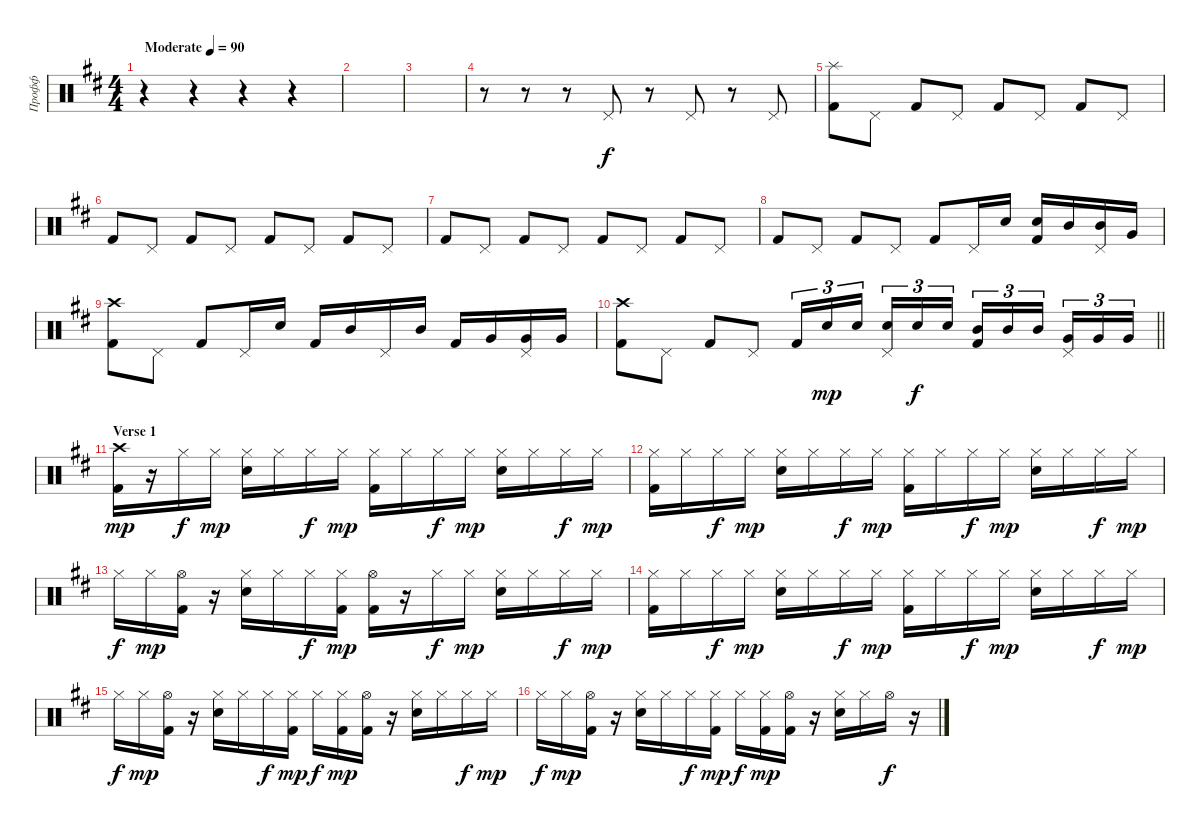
\track ("Профф" "Профф") {instrument percussion}
\staff {score}
\articulation defaults
\ts (4 4)
\tempo (90 "Moderate")
\clef neutral
\ks bminor
r.4{dy f} r.4 r.4 r.4 |
|
|
r.8 r.8 r.8 "Pedal Hi-Hat (hit)".8 r.8 "Pedal Hi-Hat (hit)".8 r.8 "Pedal Hi-Hat (hit)".8 |
("Splash (hit)" "Kick (hit) 2").8 "Pedal Hi-Hat (hit)".8 "Kick (hit) 2".8 "Pedal Hi-Hat (hit)".8 "Kick (hit) 2".8 "Pedal Hi-Hat (hit)".8 "Kick (hit) 2".8 "Pedal Hi-Hat (hit)".8 |
"Kick (hit) 2".8 "Pedal Hi-Hat (hit)".8 "Kick (hit) 2".8 "Pedal Hi-Hat (hit)".8 "Kick (hit) 2".8 "Pedal Hi-Hat (hit)".8 "Kick (hit) 2".8 "Pedal Hi-Hat (hit)".8 |
"Kick (hit) 2".8 "Pedal Hi-Hat (hit)".8 "Kick (hit) 2".8 "Pedal Hi-Hat (hit)".8 "Kick (hit) 2".8 "Pedal Hi-Hat (hit)".8 "Kick (hit) 2".8 "Pedal Hi-Hat (hit)".8 |
"Kick (hit) 2".8 "Pedal Hi-Hat (hit)".8 "Kick (hit) 2".8 "Pedal Hi-Hat (hit)".8 "Kick (hit) 2".8 "Pedal Hi-Hat (hit)".16 "Electric Snare (hit)".16 ("Electric Snare (hit)" "Kick (hit) 2").16 "Mid Tom (hit)".16 ("Pedal Hi-Hat (hit)" "Mid Tom (hit)").16 "Very Low Tom (hit)".16 |
("Crash high (hit)" "Kick (hit) 2").8 "Pedal Hi-Hat (hit)".8 "Kick (hit) 2".8 "Pedal Hi-Hat (hit)".16 "Electric Snare (hit)".16 "Kick (hit) 2".16 "Mid Tom (hit)".16 "Pedal Hi-Hat (hit)".16 "Mid Tom (hit)".16 "Kick (hit) 2".16 "Very Low Tom (hit)".16 ("Pedal Hi-Hat (hit)" "Very Low Tom (hit)").16 "Very Low Tom (hit)".16 |
\barLineRight lightlight
("Crash high (hit)" "Kick (hit) 2").8 "Pedal Hi-Hat (hit)".8 "Kick (hit) 2".8 "Pedal Hi-Hat (hit)".8 "Kick (hit) 2".16{tu (3 2)} "Electric Snare (hit)".16{tu (3 2) dy mp} "Electric Snare (hit)".16{tu (3 2) beam splitsecondary} ("Pedal Hi-Hat (hit)" "Electric Snare (hit)").16{tu (3 2)} "Electric Snare (hit)".16{tu (3 2) dy f} "Electric Snare (hit)".16{tu (3 2)} ("Mid Tom (hit)" "Kick (hit) 2").16{tu (3 2)} "Mid Tom (hit)".16{tu (3 2)} "Mid Tom (hit)".16{tu (3 2) beam splitsecondary} ("Pedal Hi-Hat (hit)" "Very Low Tom (hit)").16{tu (3 2)} "Very Low Tom (hit)".16{tu (3 2)} "Very Low Tom (hit)".16{tu (3 2)} |
\section ("" "Verse 1")
("Crash high (hit)" "Kick (hit) 2").16{dy mp} r.16 "Hi-Hat (closed)".16{dy f} "Hi-Hat (closed)".16{dy mp} ("Hi-Hat (closed)" "Electric Snare (hit)").16 "Hi-Hat (closed)".16 "Hi-Hat (closed)".16{dy f} "Hi-Hat (closed)".16{dy mp} ("Hi-Hat (closed)" "Kick (hit) 2").16 "Hi-Hat (closed)".16 "Hi-Hat (closed)".16{dy f} "Hi-Hat (closed)".16{dy mp} ("Hi-Hat (closed)" "Electric Snare (hit)").16 "Hi-Hat (closed)".16 "Hi-Hat (closed)".16{dy f} "Hi-Hat (closed)".16{dy mp} |
("Hi-Hat (closed)" "Kick (hit) 2").16 "Hi-Hat (closed)".16 "Hi-Hat (closed)".16{dy f} "Hi-Hat (closed)".16{dy mp} ("Hi-Hat (closed)" "Electric Snare (hit)").16 "Hi-Hat (closed)".16 "Hi-Hat (closed)".16{dy f} "Hi-Hat (closed)".16{dy mp} ("Hi-Hat (closed)" "Kick (hit) 2").16 "Hi-Hat (closed)".16 "Hi-Hat (closed)".16{dy f} "Hi-Hat (closed)".16{dy mp} ("Hi-Hat (closed)" "Electric Snare (hit)").16 "Hi-Hat (closed)".16 "Hi-Hat (closed)".16{dy f} "Hi-Hat (closed)".16{dy mp} |
"Hi-Hat (closed)".16{dy f} "Hi-Hat (closed)".16{dy mp} ("Hi-Hat (open)" "Kick (hit) 2").16 r.16 ("Hi-Hat (closed)" "Electric Snare (hit)").16 "Hi-Hat (closed)".16 "Hi-Hat (closed)".16{dy f} ("Hi-Hat (closed)" "Kick (hit) 2").16{dy mp} ("Hi-Hat (open)" "Kick (hit) 2").16 r.16 "Hi-Hat (closed)".16{dy f} "Hi-Hat (closed)".16{dy mp} ("Hi-Hat (closed)" "Electric Snare (hit)").16 "Hi-Hat (closed)".16 "Hi-Hat (closed)".16{dy f} "Hi-Hat (closed)".16{dy mp} |
("Hi-Hat (closed)" "Kick (hit) 2").16 "Hi-Hat (closed)".16 "Hi-Hat (closed)".16{dy f} "Hi-Hat (closed)".16{dy mp} ("Hi-Hat (closed)" "Electric Snare (hit)").16 "Hi-Hat (closed)".16 "Hi-Hat (closed)".16{dy f} "Hi-Hat (closed)".16{dy mp} ("Hi-Hat (closed)" "Kick (hit) 2").16 "Hi-Hat (closed)".16 "Hi-Hat (closed)".16{dy f} "Hi-Hat (closed)".16{dy mp} ("Hi-Hat (closed)" "Electric Snare (hit)").16 "Hi-Hat (closed)".16 "Hi-Hat (closed)".16{dy f} "Hi-Hat (closed)".16{dy mp} |
"Hi-Hat (closed)".16{dy f} "Hi-Hat (closed)".16{dy mp} ("Hi-Hat (open)" "Kick (hit) 2").16 r.16 ("Hi-Hat (closed)" "Electric Snare (hit)").16 "Hi-Hat (closed)".16 "Hi-Hat (closed)".16{dy f} ("Hi-Hat (closed)" "Kick (hit) 2").16{dy mp} "Hi-Hat (closed)".16{dy f} ("Hi-Hat (closed)" "Kick (hit) 2").16{dy mp} ("Hi-Hat (open)" "Kick (hit) 2").16 r.16 ("Hi-Hat (closed)" "Electric Snare (hit)").16 "Hi-Hat (closed)".16 "Hi-Hat (closed)".16{dy f} "Hi-Hat (closed)".16{dy mp} |
"Hi-Hat (closed)".16{dy f} "Hi-Hat (closed)".16{dy mp} ("Hi-Hat (open)" "Kick (hit) 2").16 r.16 ("Hi-Hat (closed)" "Electric Snare (hit)").16 "Hi-Hat (closed)".16 "Hi-Hat (closed)".16{dy f} ("Hi-Hat (closed)" "Kick (hit) 2").16{dy mp} "Hi-Hat (closed)".16{dy f} ("Hi-Hat (closed)" "Kick (hit) 2").16{dy mp} ("Hi-Hat (open)" "Kick (hit) 2").16 r.16 ("Hi-Hat (closed)" "Electric Snare (hit)").16 "Hi-Hat (closed)".16 "Hi-Hat (open)".16{dy f} r.16
